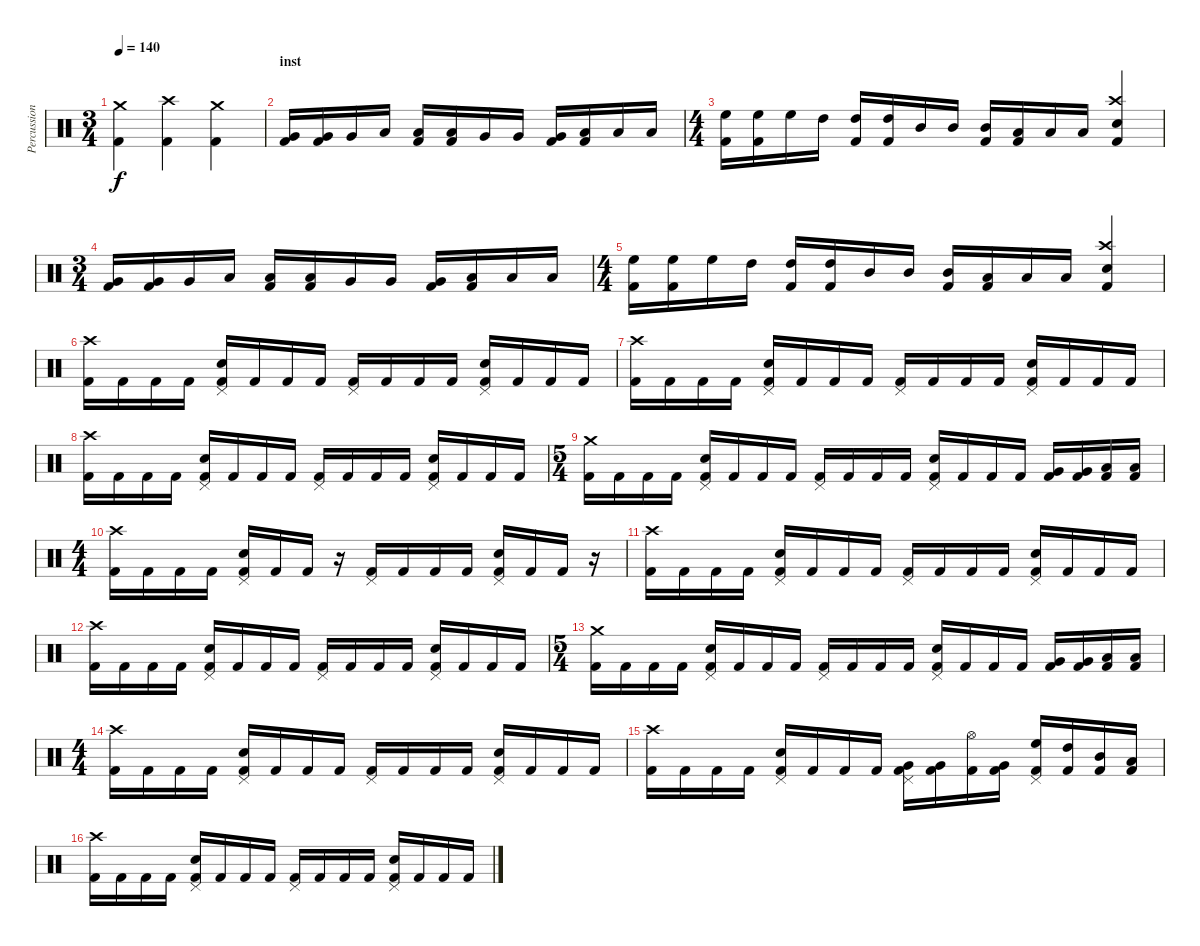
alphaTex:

\track ("Percussion" "Percussion") {instrument percussion}
\staff {score}
\articulation defaults
\ts (3 4)
\tempo 140
\clef neutral
\ks c
("Crash medium (hit)" "Kick (hit) 2").4{dy f} ("Crash high (hit)" "Kick (hit) 2").4 ("Crash medium (hit)" "Kick (hit) 2").4 |
\section ("" "inst")
("Very Low Tom (hit)" "Kick (hit) 2").16 ("Very Low Tom (hit)" "Kick (hit) 2").16 "Very Low Tom (hit)".16 "Low Floor Tom (hit)".16 ("Low Floor Tom (hit)" "Kick (hit) 2").16 ("Low Floor Tom (hit)" "Kick (hit) 2").16 "Very Low Tom (hit)".16 "Very Low Tom (hit)".16 ("Very Low Tom (hit)" "Kick (hit) 2").16 ("Low Floor Tom (hit)" "Kick (hit) 2").16 "Low Floor Tom (hit)".16 "Low Floor Tom (hit)".16 |
\ts (4 4)
("High Floor Tom (hit)" "Kick (hit) 2").16 ("High Floor Tom (hit)" "Kick (hit) 2").16 "High Floor Tom (hit)".16 "High Tom (hit)".16 ("High Tom (hit)" "Kick (hit) 2").16 ("High Tom (hit)" "Kick (hit) 2").16 "Mid Tom (hit)".16 "Mid Tom (hit)".16 ("Mid Tom (hit)" "Kick (hit) 2").16 ("Low Tom (hit)" "Kick (hit) 2").16 "Low Tom (hit)".16 "Low Tom (hit)".16 ("Crash high (hit)" "Electric Snare (hit)" "Kick (hit) 2").4 |
\ts (3 4)
("Very Low Tom (hit)" "Kick (hit) 2").16 ("Very Low Tom (hit)" "Kick (hit) 2").16 "Very Low Tom (hit)".16 "Low Floor Tom (hit)".16 ("Low Floor Tom (hit)" "Kick (hit) 2").16 ("Low Floor Tom (hit)" "Kick (hit) 2").16 "Very Low Tom (hit)".16 "Very Low Tom (hit)".16 ("Very Low Tom (hit)" "Kick (hit) 2").16 ("Low Floor Tom (hit)" "Kick (hit) 2").16 "Low Floor Tom (hit)".16 "Low Floor Tom (hit)".16 |
\ts (4 4)
("High Floor Tom (hit)" "Kick (hit) 2").16 ("High Floor Tom (hit)" "Kick (hit) 2").16 "High Floor Tom (hit)".16 "High Tom (hit)".16 ("High Tom (hit)" "Kick (hit) 2").16 ("High Tom (hit)" "Kick (hit) 2").16 "Mid Tom (hit)".16 "Mid Tom (hit)".16 ("Mid Tom (hit)" "Kick (hit) 2").16 ("Low Tom (hit)" "Kick (hit) 2").16 "Low Tom (hit)".16 "Low Tom (hit)".16 ("Crash high (hit)" "Electric Snare (hit)" "Kick (hit) 2").4 |
("Crash high (hit)" "Kick (hit) 2").16 "Kick (hit) 2".16 "Kick (hit) 2".16 "Kick (hit) 2".16 ("Pedal Hi-Hat (hit)" "Electric Snare (hit)" "Kick (hit) 2").16 "Kick (hit) 2".16 "Kick (hit) 2".16 "Kick (hit) 2".16 ("Pedal Hi-Hat (hit)" "Kick (hit) 2").16 "Kick (hit) 2".16 "Kick (hit) 2".16 "Kick (hit) 2".16 ("Pedal Hi-Hat (hit)" "Electric Snare (hit)" "Kick (hit) 2").16 "Kick (hit) 2".16 "Kick (hit) 2".16 "Kick (hit) 2".16 |
("Crash high (hit)" "Kick (hit) 2").16 "Kick (hit) 2".16 "Kick (hit) 2".16 "Kick (hit) 2".16 ("Pedal Hi-Hat (hit)" "Electric Snare (hit)" "Kick (hit) 2").16 "Kick (hit) 2".16 "Kick (hit) 2".16 "Kick (hit) 2".16 ("Pedal Hi-Hat (hit)" "Kick (hit) 2").16 "Kick (hit) 2".16 "Kick (hit) 2".16 "Kick (hit) 2".16 ("Pedal Hi-Hat (hit)" "Electric Snare (hit)" "Kick (hit) 2").16 "Kick (hit) 2".16 "Kick (hit) 2".16 "Kick (hit) 2".16 |
("Crash high (hit)" "Kick (hit) 2").16 "Kick (hit) 2".16 "Kick (hit) 2".16 "Kick (hit) 2".16 ("Pedal Hi-Hat (hit)" "Electric Snare (hit)" "Kick (hit) 2").16 "Kick (hit) 2".16 "Kick (hit) 2".16 "Kick (hit) 2".16 ("Pedal Hi-Hat (hit)" "Kick (hit) 2").16 "Kick (hit) 2".16 "Kick (hit) 2".16 "Kick (hit) 2".16 ("Pedal Hi-Hat (hit)" "Electric Snare (hit)" "Kick (hit) 2").16 "Kick (hit) 2".16 "Kick (hit) 2".16 "Kick (hit) 2".16 |
\ts (5 4)
("Crash medium (hit)" "Kick (hit) 2").16 "Kick (hit) 2".16 "Kick (hit) 2".16 "Kick (hit) 2".16 ("Pedal Hi-Hat (hit)" "Electric Snare (hit)" "Kick (hit) 2").16 "Kick (hit) 2".16 "Kick (hit) 2".16 "Kick (hit) 2".16 ("Pedal Hi-Hat (hit)" "Kick (hit) 2").16 "Kick (hit) 2".16 "Kick (hit) 2".16 "Kick (hit) 2".16 ("Pedal Hi-Hat (hit)" "Electric Snare (hit)" "Kick (hit) 2").16 "Kick (hit) 2".16 "Kick (hit) 2".16 "Kick (hit) 2".16 ("Very Low Tom (hit)" "Kick (hit) 2").16 ("Very Low Tom (hit)" "Kick (hit) 2").16 ("Low Floor Tom (hit)" "Kick (hit) 2").16 ("Low Floor Tom (hit)" "Kick (hit) 2").16 |
\ts (4 4)
("Crash high (hit)" "Kick (hit) 2").16 "Kick (hit) 2".16 "Kick (hit) 2".16 "Kick (hit) 2".16 ("Pedal Hi-Hat (hit)" "Electric Snare (hit)" "Kick (hit) 2").16 "Kick (hit) 2".16 "Kick (hit) 2".16 r.16 ("Pedal Hi-Hat (hit)" "Kick (hit) 2").16 "Kick (hit) 2".16 "Kick (hit) 2".16 "Kick (hit) 2".16 ("Pedal Hi-Hat (hit)" "Electric Snare (hit)" "Kick (hit) 2").16 "Kick (hit) 2".16 "Kick (hit) 2".16 r.16 |
("Crash high (hit)" "Kick (hit) 2").16 "Kick (hit) 2".16 "Kick (hit) 2".16 "Kick (hit) 2".16 ("Pedal Hi-Hat (hit)" "Electric Snare (hit)" "Kick (hit) 2").16 "Kick (hit) 2".16 "Kick (hit) 2".16 "Kick (hit) 2".16 ("Pedal Hi-Hat (hit)" "Kick (hit) 2").16 "Kick (hit) 2".16 "Kick (hit) 2".16 "Kick (hit) 2".16 ("Pedal Hi-Hat (hit)" "Electric Snare (hit)" "Kick (hit) 2").16 "Kick (hit) 2".16 "Kick (hit) 2".16 "Kick (hit) 2".16 |
("Crash high (hit)" "Kick (hit) 2").16 "Kick (hit) 2".16 "Kick (hit) 2".16 "Kick (hit) 2".16 ("Pedal Hi-Hat (hit)" "Electric Snare (hit)" "Kick (hit) 2").16 "Kick (hit) 2".16 "Kick (hit) 2".16 "Kick (hit) 2".16 ("Pedal Hi-Hat (hit)" "Kick (hit) 2").16 "Kick (hit) 2".16 "Kick (hit) 2".16 "Kick (hit) 2".16 ("Pedal Hi-Hat (hit)" "Electric Snare (hit)" "Kick (hit) 2").16 "Kick (hit) 2".16 "Kick (hit) 2".16 "Kick (hit) 2".16 |
\ts (5 4)
("Crash medium (hit)" "Kick (hit) 2").16 "Kick (hit) 2".16 "Kick (hit) 2".16 "Kick (hit) 2".16 ("Pedal Hi-Hat (hit)" "Electric Snare (hit)" "Kick (hit) 2").16 "Kick (hit) 2".16 "Kick (hit) 2".16 "Kick (hit) 2".16 ("Pedal Hi-Hat (hit)" "Kick (hit) 2").16 "Kick (hit) 2".16 "Kick (hit) 2".16 "Kick (hit) 2".16 ("Pedal Hi-Hat (hit)" "Electric Snare (hit)" "Kick (hit) 2").16 "Kick (hit) 2".16 "Kick (hit) 2".16 "Kick (hit) 2".16 ("Very Low Tom (hit)" "Kick (hit) 2").16 ("Very Low Tom (hit)" "Kick (hit) 2").16 ("Low Floor Tom (hit)" "Kick (hit) 2").16 ("Low Floor Tom (hit)" "Kick (hit) 2").16 |
\ts (4 4)
("Crash high (hit)" "Kick (hit) 2").16 "Kick (hit) 2".16 "Kick (hit) 2".16 "Kick (hit) 2".16 ("Pedal Hi-Hat (hit)" "Electric Snare (hit)" "Kick (hit) 2").16 "Kick (hit) 2".16 "Kick (hit) 2".16 "Kick (hit) 2".16 ("Pedal Hi-Hat (hit)" "Kick (hit) 2").16 "Kick (hit) 2".16 "Kick (hit) 2".16 "Kick (hit) 2".16 ("Pedal Hi-Hat (hit)" "Electric Snare (hit)" "Kick (hit) 2").16 "Kick (hit) 2".16 "Kick (hit) 2".16 "Kick (hit) 2".16 |
("Crash high (hit)" "Kick (hit) 2").16 "Kick (hit) 2".16 "Kick (hit) 2".16 "Kick (hit) 2".16 ("Pedal Hi-Hat (hit)" "Electric Snare (hit)" "Kick (hit) 2").16 "Kick (hit) 2".16 "Kick (hit) 2".16 "Kick (hit) 2".16 ("Pedal Hi-Hat (hit)" "Very Low Tom (hit)" "Kick (hit) 2").16 ("Very Low Tom (hit)" "Kick (hit) 2").16 ("Hi-Hat (open)" "Kick (hit) 2").16 ("Very Low Tom (hit)" "Kick (hit) 2").16 ("Pedal Hi-Hat (hit)" "High Floor Tom (hit)" "Kick (hit) 2").16 ("High Tom (hit)" "Kick (hit) 2").16 ("Mid Tom (hit)" "Kick (hit) 2").16 ("Low Tom (hit)" "Kick (hit) 2").16 |
("Crash high (hit)" "Kick (hit) 2").16 "Kick (hit) 2".16 "Kick (hit) 2".16 "Kick (hit) 2".16 ("Pedal Hi-Hat (hit)" "Electric Snare (hit)" "Kick (hit) 2").16 "Kick (hit) 2".16 "Kick (hit) 2".16 "Kick (hit) 2".16 ("Pedal Hi-Hat (hit)" "Kick (hit) 2").16 "Kick (hit) 2".16 "Kick (hit) 2".16 "Kick (hit) 2".16 ("Pedal Hi-Hat (hit)" "Electric Snare (hit)" "Kick (hit) 2").16 "Kick (hit) 2".16 "Kick (hit) 2".16 "Kick (hit) 2".16
